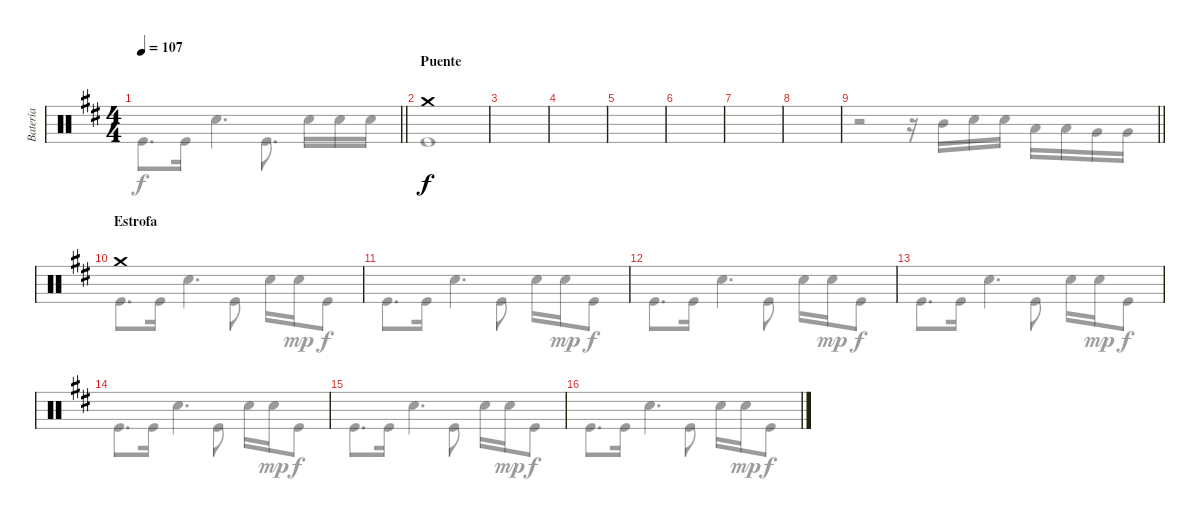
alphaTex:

\track ("Batería" "Batería") {instrument percussion}
\staff {score}
\articulation defaults
\voice
\ts (4 4)
\tempo 107
\clef neutral
\barLineRight lightlight
\ks d
|
\section ("" "Puente")
"Crash medium (hit)".1 |
|
|
|
|
|
|
\barLineRight lightlight
|
\section ("" "Estrofa")
"Crash medium (hit)".1 |
|
|
|
|
|
\voice
\clef neutral
\ottava regular
\simile none
\barLineRight lightlight
\ks d "Kick (hit)".8{d dy f} "Kick (hit)".16 "Electric Snare (hit)".4{d} "Kick (hit)".8{d} "Electric Snare (hit)".16 "Electric Snare (hit)".16 "Electric Snare (hit)".16
|
"Kick (hit)".1 |
|
|
|
|
|
|
\barLineRight lightlight
r.2 r.16 "Mid Tom (hit)".16 "Electric Snare (hit)".16 "Electric Snare (hit)".16 "Low Tom (hit)".16 "Low Tom (hit)".16 "Very Low Tom (hit)".16 "Very Low Tom (hit)".16 |
"Kick (hit)".8{d} "Kick (hit)".16 "Electric Snare (hit)".4{d} "Kick (hit)".8 "Electric Snare (hit)".16 "Electric Snare (hit)".16{dy mp} "Kick (hit)".8{dy f} |
"Kick (hit)".8{d} "Kick (hit)".16 "Electric Snare (hit)".4{d} "Kick (hit)".8 "Electric Snare (hit)".16 "Electric Snare (hit)".16{dy mp} "Kick (hit)".8{dy f} |
"Kick (hit)".8{d} "Kick (hit)".16 "Electric Snare (hit)".4{d} "Kick (hit)".8 "Electric Snare (hit)".16 "Electric Snare (hit)".16{dy mp} "Kick (hit)".8{dy f} |
"Kick (hit)".8{d} "Kick (hit)".16 "Electric Snare (hit)".4{d} "Kick (hit)".8 "Electric Snare (hit)".16 "Electric Snare (hit)".16{dy mp} "Kick (hit)".8{dy f} |
"Kick (hit)".8{d} "Kick (hit)".16 "Electric Snare (hit)".4{d} "Kick (hit)".8 "Electric Snare (hit)".16 "Electric Snare (hit)".16{dy mp} "Kick (hit)".8{dy f} |
"Kick (hit)".8{d} "Kick (hit)".16 "Electric Snare (hit)".4{d} "Kick (hit)".8 "Electric Snare (hit)".16 "Electric Snare (hit)".16{dy mp} "Kick (hit)".8{dy f} |
"Kick (hit)".8{d} "Kick (hit)".16 "Electric Snare (hit)".4{d} "Kick (hit)".8 "Electric Snare (hit)".16 "Electric Snare (hit)".16{dy mp} "Kick (hit)".8{dy f}
